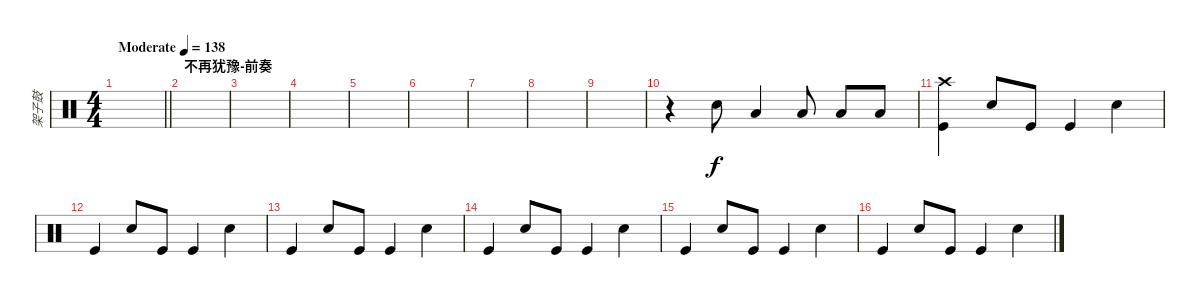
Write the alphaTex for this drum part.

\track ("架子鼓" "架子鼓") {instrument percussion}
\staff {score}
\articulation defaults
\ts (4 4)
\tempo (138 "Moderate")
\clef neutral
\barLineRight lightlight
\ks c
|
\section ("" "不再犹豫-前奏")
|
|
|
|
|
|
|
|
r.4 "Electric Snare (hit)".8 "Low Floor Tom (hit)".4 "Low Floor Tom (hit)".8 "Low Floor Tom (hit)".8 "Low Floor Tom (hit)".8 |
("Crash high (hit)" "Kick (hit)").4 "Electric Snare (hit)".8 "Kick (hit)".8 "Kick (hit)".4 "Electric Snare (hit)".4 |
"Kick (hit)".4 "Electric Snare (hit)".8 "Kick (hit)".8 "Kick (hit)".4 "Electric Snare (hit)".4 |
"Kick (hit)".4 "Electric Snare (hit)".8 "Kick (hit)".8 "Kick (hit)".4 "Electric Snare (hit)".4 |
"Kick (hit)".4 "Electric Snare (hit)".8 "Kick (hit)".8 "Kick (hit)".4 "Electric Snare (hit)".4 |
"Kick (hit)".4 "Electric Snare (hit)".8 "Kick (hit)".8 "Kick (hit)".4 "Electric Snare (hit)".4 |
"Kick (hit)".4 "Electric Snare (hit)".8 "Kick (hit)".8 "Kick (hit)".4 "Electric Snare (hit)".4
